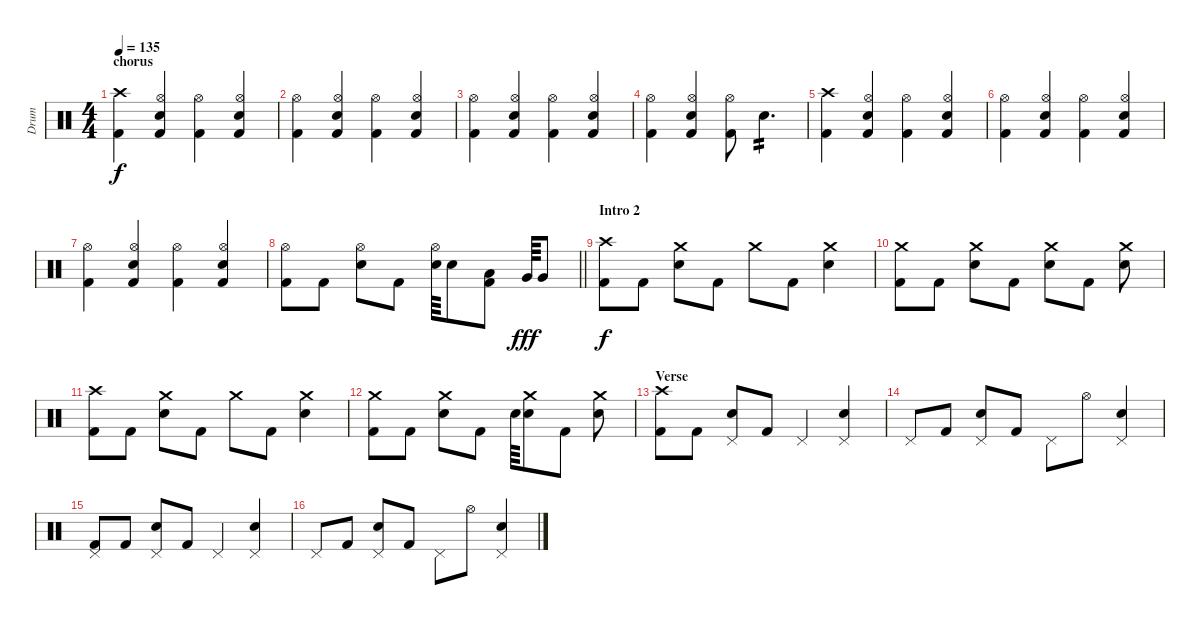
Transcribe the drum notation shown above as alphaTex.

\track ("Drum" "Drum") {instrument percussion bank 127}
\staff {score}
\articulation defaults
\ts (4 4)
\section ("" "chorus")
\tempo 135
\clef neutral
\ks c
("Kick (hit) 2" "Crash high (hit)").4{dy f} ("Hi-Hat (open)" "Kick (hit) 2" "Electric Snare (hit)").4 ("Hi-Hat (open)" "Kick (hit) 2").4 ("Hi-Hat (open)" "Kick (hit) 2" "Electric Snare (hit)").4 |
("Hi-Hat (open)" "Kick (hit) 2").4 ("Hi-Hat (open)" "Kick (hit) 2" "Electric Snare (hit)").4 ("Hi-Hat (open)" "Kick (hit) 2").4 ("Hi-Hat (open)" "Kick (hit) 2" "Electric Snare (hit)").4 |
("Hi-Hat (open)" "Kick (hit) 2").4 ("Hi-Hat (open)" "Kick (hit) 2" "Electric Snare (hit)").4 ("Hi-Hat (open)" "Kick (hit) 2").4 ("Hi-Hat (open)" "Kick (hit) 2" "Electric Snare (hit)").4 |
("Hi-Hat (open)" "Kick (hit) 2").4 ("Hi-Hat (open)" "Kick (hit) 2" "Electric Snare (hit)").4 ("Hi-Hat (open)" "Kick (hit) 2").8 "Electric Snare (hit)".4{d tp 2} |
("Kick (hit) 2" "Crash high (hit)").4 ("Hi-Hat (open)" "Kick (hit) 2" "Electric Snare (hit)").4 ("Hi-Hat (open)" "Kick (hit) 2").4 ("Hi-Hat (open)" "Kick (hit) 2" "Electric Snare (hit)").4 |
("Hi-Hat (open)" "Kick (hit) 2").4 ("Hi-Hat (open)" "Kick (hit) 2" "Electric Snare (hit)").4 ("Hi-Hat (open)" "Kick (hit) 2").4 ("Hi-Hat (open)" "Kick (hit) 2" "Electric Snare (hit)").4 |
("Hi-Hat (open)" "Kick (hit) 2").4 ("Hi-Hat (open)" "Kick (hit) 2" "Electric Snare (hit)").4 ("Hi-Hat (open)" "Kick (hit) 2").4 ("Hi-Hat (open)" "Kick (hit) 2" "Electric Snare (hit)").4 |
\barLineRight lightlight
("Hi-Hat (open)" "Kick (hit) 2").8 "Kick (hit) 2".8 ("Hi-Hat (open)" "Electric Snare (hit)").8 "Kick (hit) 2".8 ("Hi-Hat (open)" "Electric Snare (hit)").64 "Electric Snare (hit)".8 ("Low Tom (hit)" "Kick (hit) 2").8 "Very Low Tom (hit)".64{dy fff} "Very Low Tom (hit)".8 |
\section ("" "Intro 2")
("Crash high (hit)" "Kick (hit) 2").8{dy f} "Kick (hit) 2".8 ("Crash medium (hit)" "Electric Snare (hit)").8 "Kick (hit) 2".8 "Crash medium (hit)".8 "Kick (hit) 2".8 ("Crash medium (hit)" "Electric Snare (hit)").4 |
("Crash medium (hit)" "Kick (hit) 2").8 "Kick (hit) 2".8 ("Crash medium (hit)" "Electric Snare (hit)").8 "Kick (hit) 2".8 ("Crash medium (hit)" "Electric Snare (hit)").8 "Kick (hit) 2".8 ("Crash medium (hit)" "Electric Snare (hit)").8 |
("Crash high (hit)" "Kick (hit) 2").8 "Kick (hit) 2".8 ("Crash medium (hit)" "Electric Snare (hit)").8 "Kick (hit) 2".8 "Crash medium (hit)".8 "Kick (hit) 2".8 ("Crash medium (hit)" "Electric Snare (hit)").4 |
("Crash medium (hit)" "Kick (hit) 2").8 "Kick (hit) 2".8 ("Crash medium (hit)" "Electric Snare (hit)").8 "Kick (hit) 2".8 "Electric Snare (hit)".64 ("Crash medium (hit)" "Electric Snare (hit)").8 "Kick (hit) 2".8 ("Crash medium (hit)" "Electric Snare (hit)").8 |
\section ("" "Verse ")
("Crash high (hit)" "Kick (hit) 2").8 "Kick (hit) 2".8 ("Pedal Hi-Hat (hit)" "Electric Snare (hit)").8 "Kick (hit) 2".8 "Pedal Hi-Hat (hit)".4 ("Pedal Hi-Hat (hit)" "Electric Snare (hit)").4 |
"Pedal Hi-Hat (hit)".8 "Kick (hit) 2".8 ("Pedal Hi-Hat (hit)" "Electric Snare (hit)").8 "Kick (hit) 2".8 "Pedal Hi-Hat (hit)".8 "Hi-Hat (open)".8 ("Pedal Hi-Hat (hit)" "Electric Snare (hit)").4 |
("Pedal Hi-Hat (hit)" "Kick (hit) 2").8 "Kick (hit) 2".8 ("Pedal Hi-Hat (hit)" "Electric Snare (hit)").8 "Kick (hit) 2".8 "Pedal Hi-Hat (hit)".4 ("Pedal Hi-Hat (hit)" "Electric Snare (hit)").4 |
"Pedal Hi-Hat (hit)".8 "Kick (hit) 2".8 ("Pedal Hi-Hat (hit)" "Electric Snare (hit)").8 "Kick (hit) 2".8 "Pedal Hi-Hat (hit)".8 "Hi-Hat (open)".8 ("Pedal Hi-Hat (hit)" "Electric Snare (hit)").4
